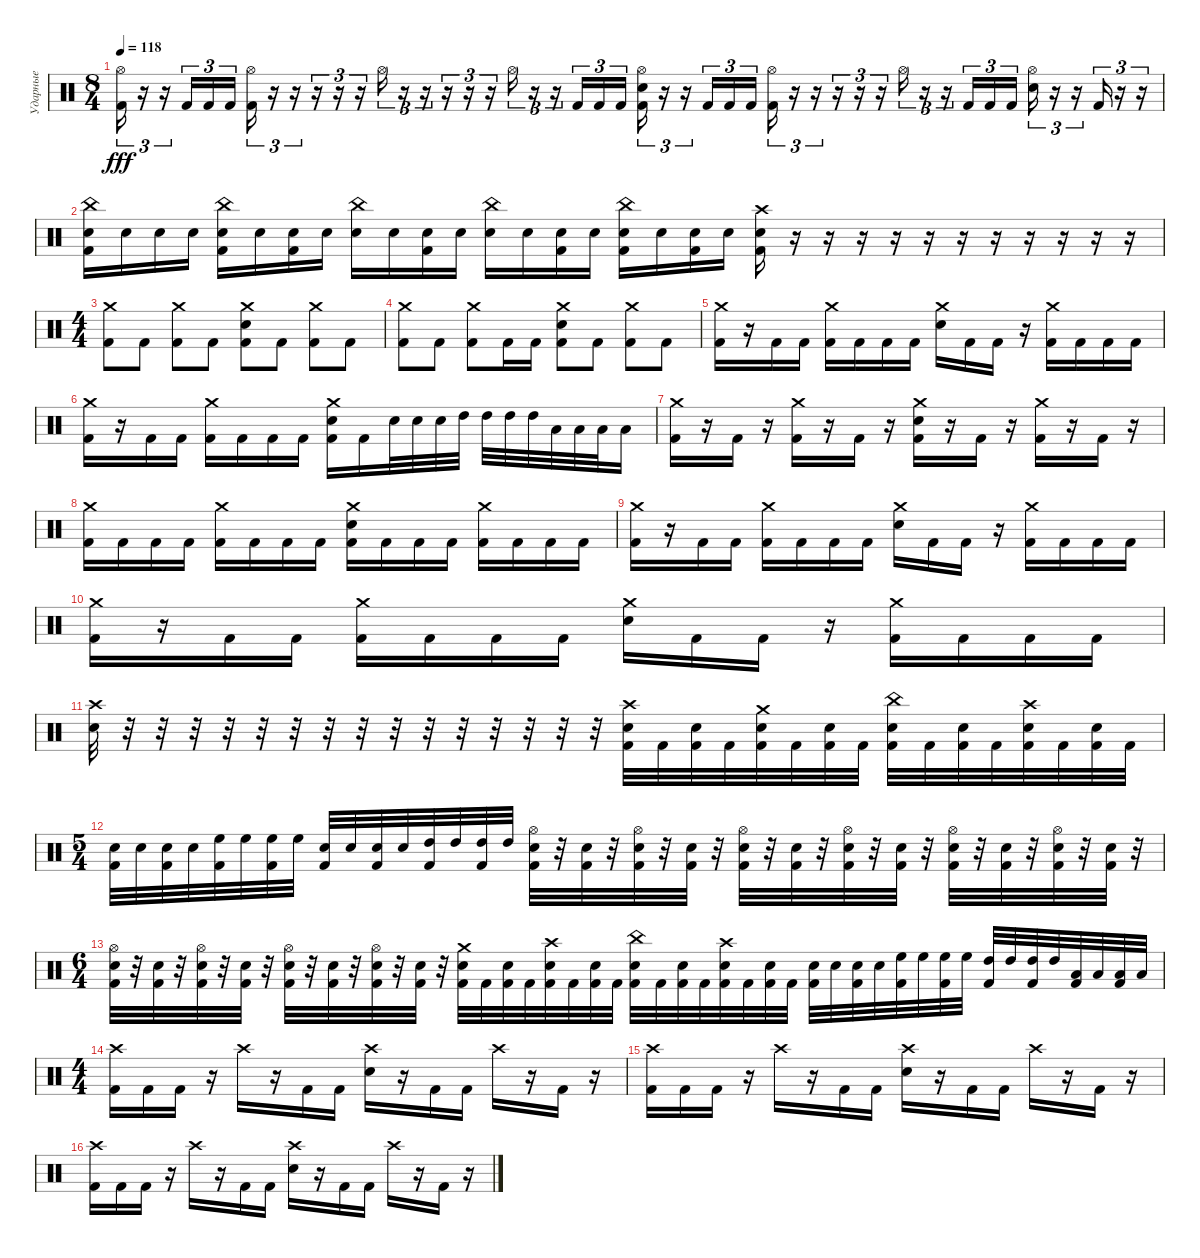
\track ("Ударные" "Ударные") {instrument percussion}
\staff {score}
\articulation defaults
\ts (8 4)
\tempo 118
\clef neutral
\ks c
("Hi-Hat (open)" "Kick (hit) 2").16{tu (3 2) dy fff} r.16{tu (3 2)} r.16{tu (3 2)} "Kick (hit) 2".16{tu (3 2)} "Kick (hit) 2".16{tu (3 2)} "Kick (hit) 2".16{tu (3 2)} ("Hi-Hat (open)" "Kick (hit) 2").16{tu (3 2)} r.16{tu (3 2)} r.16{tu (3 2)} r.16{tu (3 2)} r.16{tu (3 2)} r.16{tu (3 2)} "Hi-Hat (open)".16{tu (3 2)} r.16{tu (3 2)} r.16{tu (3 2)} r.16{tu (3 2)} r.16{tu (3 2)} r.16{tu (3 2)} "Hi-Hat (open)".16{tu (3 2)} r.16{tu (3 2)} r.16{tu (3 2)} "Kick (hit) 2".16{tu (3 2)} "Kick (hit) 2".16{tu (3 2)} "Kick (hit) 2".16{tu (3 2)} ("Hi-Hat (open)" "Electric Snare (hit)" "Kick (hit) 2").16{tu (3 2)} r.16{tu (3 2)} r.16{tu (3 2)} "Kick (hit) 2".16{tu (3 2)} "Kick (hit) 2".16{tu (3 2)} "Kick (hit) 2".16{tu (3 2)} ("Hi-Hat (open)" "Kick (hit) 2").16{tu (3 2)} r.16{tu (3 2)} r.16{tu (3 2)} r.16{tu (3 2)} r.16{tu (3 2)} r.16{tu (3 2)} "Hi-Hat (open)".16{tu (3 2)} r.16{tu (3 2)} r.16{tu (3 2)} "Kick (hit) 2".16{tu (3 2)} "Kick (hit) 2".16{tu (3 2)} "Kick (hit) 2".16{tu (3 2)} ("Hi-Hat (open)" "Electric Snare (hit)").16{tu (3 2)} r.16{tu (3 2)} r.16{tu (3 2)} "Kick (hit) 2".16{tu (3 2)} r.16{tu (3 2)} r.16{tu (3 2)} |
("China (hit)" "Electric Snare (hit)" "Kick (hit) 2").16 "Electric Snare (hit)".16 "Electric Snare (hit)".16 "Electric Snare (hit)".16 ("China (hit)" "Electric Snare (hit)" "Kick (hit) 2").16 "Electric Snare (hit)".16 ("Electric Snare (hit)" "Kick (hit) 2").16 "Electric Snare (hit)".16 ("China (hit)" "Electric Snare (hit)").16 "Electric Snare (hit)".16 ("Electric Snare (hit)" "Kick (hit) 2").16 "Electric Snare (hit)".16 ("China (hit)" "Electric Snare (hit)").16 "Electric Snare (hit)".16 ("Electric Snare (hit)" "Kick (hit) 2").16 "Electric Snare (hit)".16 ("China (hit)" "Electric Snare (hit)" "Kick (hit) 2").16 "Electric Snare (hit)".16 ("Electric Snare (hit)" "Kick (hit) 2").16 "Electric Snare (hit)".16 ("Crash high (hit)" "Electric Snare (hit)" "Kick (hit) 2").16 r.16 r.16 r.16 r.16 r.16 r.16 r.16 r.16 r.16 r.16 r.16 |
\ts (4 4)
("Crash medium (hit)" "Kick (hit) 2").8 "Kick (hit) 2".8 ("Crash medium (hit)" "Kick (hit) 2").8 "Kick (hit) 2".8 ("Crash medium (hit)" "Electric Snare (hit)" "Kick (hit) 2").8 "Kick (hit) 2".8 ("Crash medium (hit)" "Kick (hit) 2").8 "Kick (hit) 2".8 |
("Crash medium (hit)" "Kick (hit) 2").8 "Kick (hit) 2".8 ("Crash medium (hit)" "Kick (hit) 2").8 "Kick (hit) 2".16 "Kick (hit) 2".16 ("Crash medium (hit)" "Electric Snare (hit)" "Kick (hit) 2").8 "Kick (hit) 2".8 ("Crash medium (hit)" "Kick (hit) 2").8 "Kick (hit) 2".8 |
("Crash medium (hit)" "Kick (hit) 2").16 r.16 "Kick (hit) 2".16 "Kick (hit) 2".16 ("Crash medium (hit)" "Kick (hit) 2").16 "Kick (hit) 2".16 "Kick (hit) 2".16 "Kick (hit) 2".16 ("Crash medium (hit)" "Electric Snare (hit)").16 "Kick (hit) 2".16 "Kick (hit) 2".16 r.16 ("Crash medium (hit)" "Kick (hit) 2").16 "Kick (hit) 2".16 "Kick (hit) 2".16 "Kick (hit) 2".16 |
("Crash medium (hit)" "Kick (hit) 2").16 r.16 "Kick (hit) 2".16 "Kick (hit) 2".16 ("Crash medium (hit)" "Kick (hit) 2").16 "Kick (hit) 2".16 "Kick (hit) 2".16 "Kick (hit) 2".16 ("Crash medium (hit)" "Electric Snare (hit)" "Kick (hit) 2").16 "Kick (hit) 2".16 "Electric Snare (hit)".32 "Electric Snare (hit)".32 "Electric Snare (hit)".32 "High Tom (hit)".32 "High Tom (hit)".32 "High Tom (hit)".32 "High Tom (hit)".32 "Low Tom (hit)".32 "Low Tom (hit)".32 "Low Tom (hit)".32 "Low Tom (hit)".16 |
("Crash medium (hit)" "Kick (hit) 2").16 r.16 "Kick (hit) 2".16 r.16 ("Crash medium (hit)" "Kick (hit) 2").16 r.16 "Kick (hit) 2".16 r.16 ("Crash medium (hit)" "Electric Snare (hit)" "Kick (hit) 2").16 r.16 "Kick (hit) 2".16 r.16 ("Crash medium (hit)" "Kick (hit) 2").16 r.16 "Kick (hit) 2".16 r.16 |
("Crash medium (hit)" "Kick (hit) 2").16 "Kick (hit) 2".16 "Kick (hit) 2".16 "Kick (hit) 2".16 ("Crash medium (hit)" "Kick (hit) 2").16 "Kick (hit) 2".16 "Kick (hit) 2".16 "Kick (hit) 2".16 ("Crash medium (hit)" "Electric Snare (hit)" "Kick (hit) 2").16 "Kick (hit) 2".16 "Kick (hit) 2".16 "Kick (hit) 2".16 ("Crash medium (hit)" "Kick (hit) 2").16 "Kick (hit) 2".16 "Kick (hit) 2".16 "Kick (hit) 2".16 |
("Crash medium (hit)" "Kick (hit) 2").16 r.16 "Kick (hit) 2".16 "Kick (hit) 2".16 ("Crash medium (hit)" "Kick (hit) 2").16 "Kick (hit) 2".16 "Kick (hit) 2".16 "Kick (hit) 2".16 ("Crash medium (hit)" "Electric Snare (hit)").16 "Kick (hit) 2".16 "Kick (hit) 2".16 r.16 ("Crash medium (hit)" "Kick (hit) 2").16 "Kick (hit) 2".16 "Kick (hit) 2".16 "Kick (hit) 2".16 |
("Crash medium (hit)" "Kick (hit) 2").16 r.16 "Kick (hit) 2".16 "Kick (hit) 2".16 ("Crash medium (hit)" "Kick (hit) 2").16 "Kick (hit) 2".16 "Kick (hit) 2".16 "Kick (hit) 2".16 ("Crash medium (hit)" "Electric Snare (hit)").16 "Kick (hit) 2".16 "Kick (hit) 2".16 r.16 ("Crash medium (hit)" "Kick (hit) 2").16 "Kick (hit) 2".16 "Kick (hit) 2".16 "Kick (hit) 2".16 |
("Crash high (hit)" "Electric Snare (hit)").32 r.32 r.32 r.32 r.32 r.32 r.32 r.32 r.32 r.32 r.32 r.32 r.32 r.32 r.32 r.32 ("Crash high (hit)" "Electric Snare (hit)" "Kick (hit) 2").32 "Kick (hit) 2".32 ("Electric Snare (hit)" "Kick (hit) 2").32 "Kick (hit) 2".32 ("Crash medium (hit)" "Electric Snare (hit)" "Kick (hit) 2").32 "Kick (hit) 2".32 ("Electric Snare (hit)" "Kick (hit) 2").32 "Kick (hit) 2".32 ("China (hit)" "Electric Snare (hit)" "Kick (hit) 2").32 "Kick (hit) 2".32 ("Electric Snare (hit)" "Kick (hit) 2").32 "Kick (hit) 2".32 ("Crash high (hit)" "Electric Snare (hit)" "Kick (hit) 2").32 "Kick (hit) 2".32 ("Electric Snare (hit)" "Kick (hit) 2").32 "Kick (hit) 2".32 |
\ts (5 4)
("Electric Snare (hit)" "Kick (hit) 2").32 "Electric Snare (hit)".32 ("Electric Snare (hit)" "Kick (hit) 2").32 "Electric Snare (hit)".32 ("High Floor Tom (hit)" "Kick (hit) 2").32 "High Floor Tom (hit)".32 ("High Floor Tom (hit)" "Kick (hit) 2").32 "High Floor Tom (hit)".32 ("Electric Snare (hit)" "Kick (hit) 2").32 "Electric Snare (hit)".32 ("Electric Snare (hit)" "Kick (hit) 2").32 "Electric Snare (hit)".32 ("High Tom (hit)" "Kick (hit) 2").32 "High Tom (hit)".32 ("High Tom (hit)" "Kick (hit) 2").32 "High Tom (hit)".32 ("Hi-Hat (open)" "Electric Snare (hit)" "Kick (hit) 2").32 r.32 ("Electric Snare (hit)" "Kick (hit) 2").32 r.32 ("Hi-Hat (open)" "Electric Snare (hit)" "Kick (hit) 2").32 r.32 ("Electric Snare (hit)" "Kick (hit) 2").32 r.32 ("Hi-Hat (open)" "Electric Snare (hit)" "Kick (hit) 2").32 r.32 ("Electric Snare (hit)" "Kick (hit) 2").32 r.32 ("Hi-Hat (open)" "Electric Snare (hit)" "Kick (hit) 2").32 r.32 ("Electric Snare (hit)" "Kick (hit) 2").32 r.32 ("Hi-Hat (open)" "Electric Snare (hit)" "Kick (hit) 2").32 r.32 ("Electric Snare (hit)" "Kick (hit) 2").32 r.32 ("Hi-Hat (open)" "Electric Snare (hit)" "Kick (hit) 2").32 r.32 ("Electric Snare (hit)" "Kick (hit) 2").32 r.32 |
\ts (6 4)
("Hi-Hat (open)" "Electric Snare (hit)" "Kick (hit) 2").32 r.32 ("Electric Snare (hit)" "Kick (hit) 2").32 r.32 ("Hi-Hat (open)" "Electric Snare (hit)" "Kick (hit) 2").32 r.32 ("Electric Snare (hit)" "Kick (hit) 2").32 r.32 ("Hi-Hat (open)" "Electric Snare (hit)" "Kick (hit) 2").32 r.32 ("Electric Snare (hit)" "Kick (hit) 2").32 r.32 ("Hi-Hat (open)" "Electric Snare (hit)" "Kick (hit) 2").32 r.32 ("Electric Snare (hit)" "Kick (hit) 2").32 r.32 ("Crash medium (hit)" "Electric Snare (hit)" "Kick (hit) 2").32 "Kick (hit) 2".32 ("Electric Snare (hit)" "Kick (hit) 2").32 "Kick (hit) 2".32 ("Crash high (hit)" "Electric Snare (hit)" "Kick (hit) 2").32 "Kick (hit) 2".32 ("Electric Snare (hit)" "Kick (hit) 2").32 "Kick (hit) 2".32 ("China (hit)" "Electric Snare (hit)" "Kick (hit) 2").32 "Kick (hit) 2".32 ("Electric Snare (hit)" "Kick (hit) 2").32 "Kick (hit) 2".32 ("Crash high (hit)" "Electric Snare (hit)" "Kick (hit) 2").32 "Kick (hit) 2".32 ("Electric Snare (hit)" "Kick (hit) 2").32 "Kick (hit) 2".32 ("Electric Snare (hit)" "Kick (hit) 2").32 "Electric Snare (hit)".32 ("Electric Snare (hit)" "Kick (hit) 2").32 "Electric Snare (hit)".32 ("High Floor Tom (hit)" "Kick (hit) 2").32 "High Floor Tom (hit)".32 ("High Floor Tom (hit)" "Kick (hit) 2").32 "High Floor Tom (hit)".32 ("High Tom (hit)" "Kick (hit) 2").32 "High Tom (hit)".32 ("High Tom (hit)" "Kick (hit) 2").32 "High Tom (hit)".32 ("Low Tom (hit)" "Kick (hit) 2").32 "Low Tom (hit)".32 ("Low Tom (hit)" "Kick (hit) 2").32 "Low Tom (hit)".32 |
\ts (4 4)
("Crash high (hit)" "Kick (hit) 2").16 "Kick (hit) 2".16 "Kick (hit) 2".16 r.16 "Crash high (hit)".16 r.16 "Kick (hit) 2".16 "Kick (hit) 2".16 ("Crash high (hit)" "Electric Snare (hit)").16 r.16 "Kick (hit) 2".16 "Kick (hit) 2".16 "Crash high (hit)".16 r.16 "Kick (hit) 2".16 r.16 |
("Crash high (hit)" "Kick (hit) 2").16 "Kick (hit) 2".16 "Kick (hit) 2".16 r.16 "Crash high (hit)".16 r.16 "Kick (hit) 2".16 "Kick (hit) 2".16 ("Crash high (hit)" "Electric Snare (hit)").16 r.16 "Kick (hit) 2".16 "Kick (hit) 2".16 "Crash high (hit)".16 r.16 "Kick (hit) 2".16 r.16 |
("Crash high (hit)" "Kick (hit) 2").16 "Kick (hit) 2".16 "Kick (hit) 2".16 r.16 "Crash high (hit)".16 r.16 "Kick (hit) 2".16 "Kick (hit) 2".16 ("Crash high (hit)" "Electric Snare (hit)").16 r.16 "Kick (hit) 2".16 "Kick (hit) 2".16 "Crash high (hit)".16 r.16 "Kick (hit) 2".16 r.16
